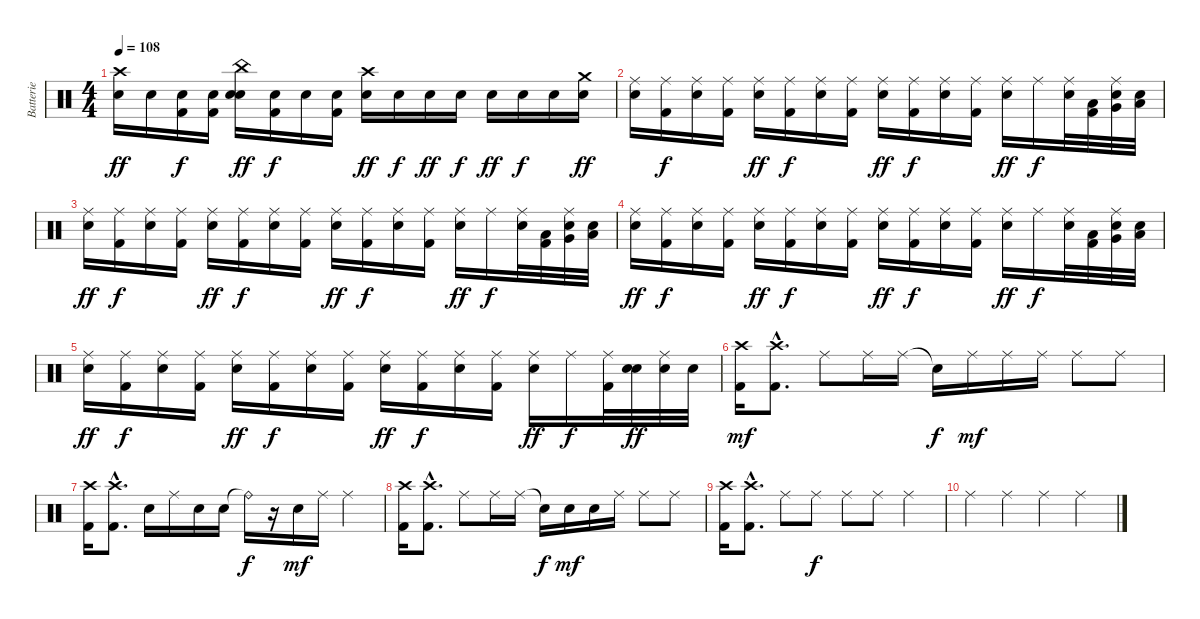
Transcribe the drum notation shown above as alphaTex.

\track ("Batterie" "Batterie") {instrument percussion}
\staff {score}
\articulation defaults
\ts (4 4)
\tempo 108
\clef neutral
\ks c
("Crash high (hit)" "Snare (hit) 2").16{dy ff} "Snare (hit) 2".16 ("Snare (hit)" "Kick (hit) 2").16{dy f} ("Snare (hit)" "Kick (hit) 2").16 ("China (hit)" "Snare (hit) 2" "Snare (hit)").16{dy ff} ("Snare (hit)" "Kick (hit) 2").16{dy f} "Snare (hit)".16 ("Snare (hit)" "Kick (hit) 2").16 ("Crash high (hit)" "Snare (hit) 2").16{dy ff} "Snare (hit)".16{dy f} "Snare (hit) 2".16{dy ff} "Snare (hit)".16{dy f} "Snare (hit) 2".16{dy ff} "Snare (hit) 2".16{dy f} "Snare (hit)".16 ("Crash medium (hit)" "Snare (hit) 2").16{dy ff} |
("Ride (middle)" "Snare (hit) 2").16 ("Ride (middle)" "Kick (hit) 2").16{dy f} ("Ride (middle)" "Snare (hit)").16 ("Ride (middle)" "Kick (hit) 2").16 ("Ride (middle)" "Snare (hit) 2").16{dy ff} ("Ride (middle)" "Kick (hit) 2").16{dy f} ("Ride (middle)" "Snare (hit)").16 ("Ride (middle)" "Kick (hit) 2").16 ("Ride (middle)" "Snare (hit) 2").16{dy ff} ("Ride (middle)" "Kick (hit) 2").16{dy f} ("Ride (middle)" "Snare (hit)").16 ("Ride (middle)" "Kick (hit) 2").16 ("Ride (middle)" "Snare (hit) 2").16{dy ff} "Ride (middle)".16{dy f} ("Ride (middle)" "Snare (hit)").32 ("Low Tom (hit)" "Kick (hit) 2").32 ("Very Low Tom (hit)" "Ride (middle)" "Snare (hit)").32 ("Low Floor Tom (hit)" "Snare (hit)").32 |
("Ride (middle)" "Snare (hit) 2").16{dy ff} ("Ride (middle)" "Kick (hit) 2").16{dy f} ("Ride (middle)" "Snare (hit)").16 ("Ride (middle)" "Kick (hit) 2").16 ("Ride (middle)" "Snare (hit) 2").16{dy ff} ("Ride (middle)" "Kick (hit) 2").16{dy f} ("Ride (middle)" "Snare (hit)").16 ("Ride (middle)" "Kick (hit) 2").16 ("Ride (middle)" "Snare (hit) 2").16{dy ff} ("Ride (middle)" "Kick (hit) 2").16{dy f} ("Ride (middle)" "Snare (hit)").16 ("Ride (middle)" "Kick (hit) 2").16 ("Ride (middle)" "Snare (hit) 2").16{dy ff} "Ride (middle)".16{dy f} ("Ride (middle)" "Snare (hit)").32 ("Low Tom (hit)" "Kick (hit) 2").32 ("Very Low Tom (hit)" "Ride (middle)" "Snare (hit)").32 ("Low Floor Tom (hit)" "Snare (hit)").32 |
("Ride (middle)" "Snare (hit) 2").16{dy ff} ("Ride (middle)" "Kick (hit) 2").16{dy f} ("Ride (middle)" "Snare (hit)").16 ("Ride (middle)" "Kick (hit) 2").16 ("Ride (middle)" "Snare (hit) 2").16{dy ff} ("Ride (middle)" "Kick (hit) 2").16{dy f} ("Ride (middle)" "Snare (hit)").16 ("Ride (middle)" "Kick (hit) 2").16 ("Ride (middle)" "Snare (hit) 2").16{dy ff} ("Ride (middle)" "Kick (hit) 2").16{dy f} ("Ride (middle)" "Snare (hit)").16 ("Ride (middle)" "Kick (hit) 2").16 ("Ride (middle)" "Snare (hit) 2").16{dy ff} "Ride (middle)".16{dy f} ("Ride (middle)" "Snare (hit)").32 ("Low Tom (hit)" "Kick (hit) 2").32 ("Very Low Tom (hit)" "Ride (middle)" "Snare (hit)").32 ("Low Floor Tom (hit)" "Snare (hit)").32 |
("Ride (middle)" "Snare (hit) 2").16{dy ff} ("Ride (middle)" "Kick (hit) 2").16{dy f} ("Ride (middle)" "Snare (hit)").16 ("Ride (middle)" "Kick (hit) 2").16 ("Ride (middle)" "Snare (hit) 2").16{dy ff} ("Ride (middle)" "Kick (hit) 2").16{dy f} ("Ride (middle)" "Snare (hit)").16 ("Ride (middle)" "Kick (hit) 2").16 ("Ride (middle)" "Snare (hit) 2").16{dy ff} ("Ride (middle)" "Kick (hit) 2").16{dy f} ("Ride (middle)" "Snare (hit)").16 ("Ride (middle)" "Kick (hit) 2").16 ("Ride (middle)" "Snare (hit) 2").16{dy ff} "Ride (middle)".16{dy f} ("Ride (middle)" "Kick (hit) 2").32 ("Snare (hit) 2" "Snare (hit)").32{dy ff} ("Ride (middle)" "Snare (hit) 2").32 "Snare (hit) 2".32 |
("Crash high (hit)" "Kick (hit) 2").16{dy mf} ("Crash high (hit)"{hac} "Kick (hit) 2"{hac}).8{d} "Ride (middle)".8 "Ride (middle)".16 "Ride (middle)".16 "Snare (hit)"{t}.16{dy f} "Ride (middle)".16{dy mf} "Ride (middle)".16 "Ride (middle)".16 "Ride (middle)".8 "Ride (middle)".8 |
("Crash high (hit)" "Kick (hit) 2").16 ("Crash high (hit)"{hac} "Kick (hit) 2"{hac}).8{d} "Snare (hit)".16 "Ride (middle)".16 "Snare (hit)".16 "Snare (hit)".16 "Ride (bell)"{t}.16{dy f} r.16 "Snare (hit)".16{dy mf} "Ride (middle)".16 "Ride (middle)".4 |
("Crash high (hit)" "Kick (hit) 2").16 ("Crash high (hit)"{hac} "Kick (hit) 2"{hac}).8{d} "Ride (middle)".8 "Ride (middle)".16 "Ride (middle)".16 "Snare (hit)"{t}.16{dy f} "Snare (hit)".16{dy mf} "Snare (hit)".16 "Ride (middle)".16 "Ride (middle)".8 "Ride (middle)".8 |
("Crash high (hit)" "Kick (hit) 2").16 ("Crash high (hit)"{hac} "Kick (hit) 2"{hac}).8{d} "Ride (middle)".8 "Ride (middle)".8{dy f} "Ride (middle)".8 "Ride (middle)".8 "Ride (middle)".4 |
"Ride (middle)".4 "Ride (middle)".4 "Ride (middle)".4 "Ride (middle)".4
